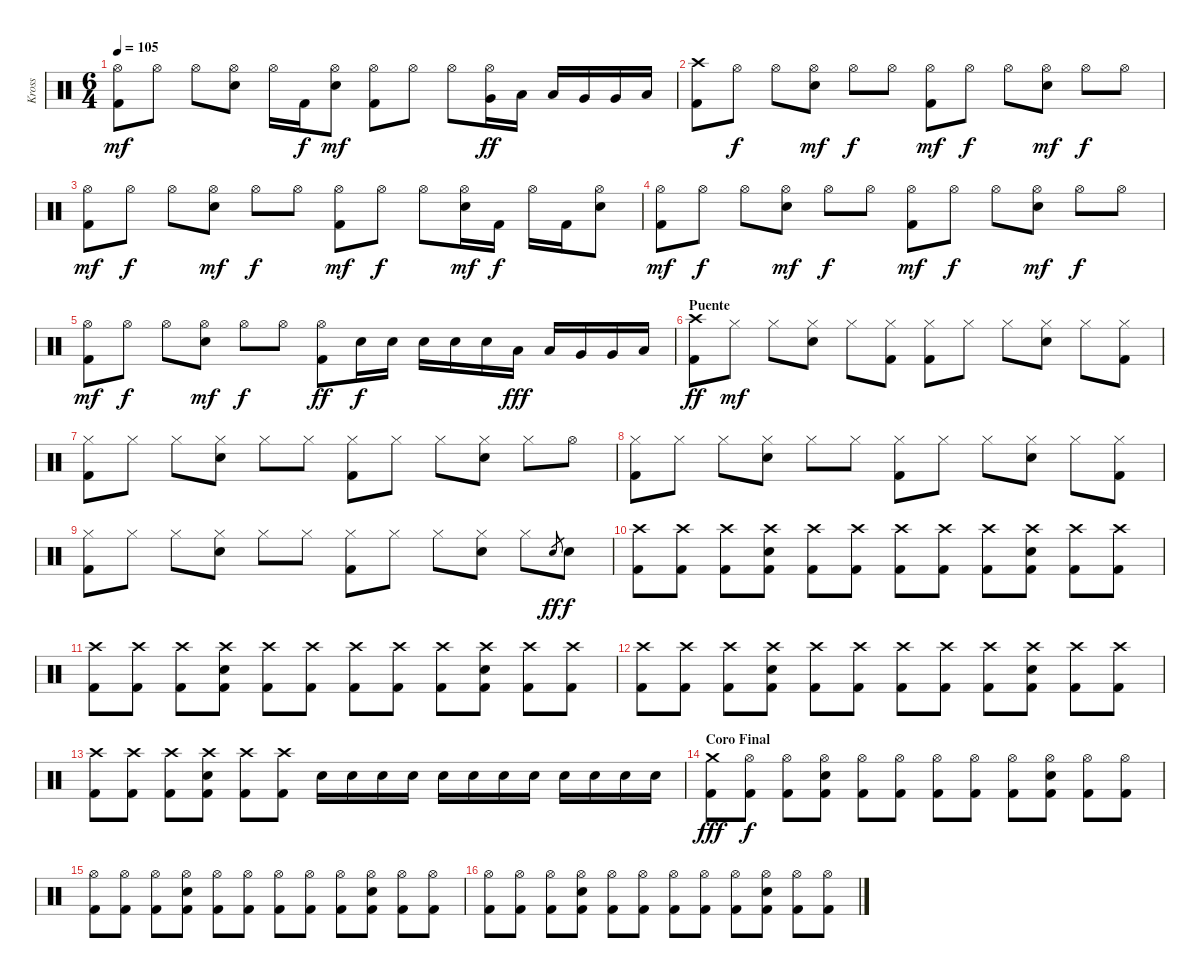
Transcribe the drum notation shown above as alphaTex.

\track ("Kross" "Kross") {instrument percussion}
\staff {score}
\articulation defaults
\ts (6 4)
\tempo 105
\clef neutral
\ks c
("Hi-Hat (open)" "Kick (hit) 2").8{dy mf} "Hi-Hat (open)".8 "Hi-Hat (open)".8 ("Hi-Hat (open)" "Electric Snare (hit)").8 "Hi-Hat (open)".16 "Kick (hit) 2".16{dy f} ("Hi-Hat (open)" "Electric Snare (hit)").8{dy mf} ("Hi-Hat (open)" "Kick (hit) 2").8 "Hi-Hat (open)".8 "Hi-Hat (open)".8 ("Hi-Hat (open)" "Very Low Tom (hit)").16{dy ff} "Low Tom (hit)".16 "Low Tom (hit)".16 "Very Low Tom (hit)".16 "Very Low Tom (hit)".16 "Low Tom (hit)".16 |
("Crash high (hit)" "Kick (hit) 2").8 "Hi-Hat (open)".8{dy f} "Hi-Hat (open)".8 ("Hi-Hat (open)" "Electric Snare (hit)").8{dy mf} "Hi-Hat (open)".8{dy f} "Hi-Hat (open)".8 ("Hi-Hat (open)" "Kick (hit) 2").8{dy mf} "Hi-Hat (open)".8{dy f} "Hi-Hat (open)".8 ("Hi-Hat (open)" "Electric Snare (hit)").8{dy mf} "Hi-Hat (open)".8{dy f} "Hi-Hat (open)".8 |
("Hi-Hat (open)" "Kick (hit) 2").8{dy mf} "Hi-Hat (open)".8{dy f} "Hi-Hat (open)".8 ("Hi-Hat (open)" "Electric Snare (hit)").8{dy mf} "Hi-Hat (open)".8{dy f} "Hi-Hat (open)".8 ("Hi-Hat (open)" "Kick (hit) 2").8{dy mf} "Hi-Hat (open)".8{dy f} "Hi-Hat (open)".8 ("Hi-Hat (open)" "Electric Snare (hit)").16{dy mf} "Kick (hit) 2".16{dy f} "Hi-Hat (open)".16 "Kick (hit) 2".16 ("Hi-Hat (open)" "Electric Snare (hit)").8 |
("Hi-Hat (open)" "Kick (hit) 2").8{dy mf} "Hi-Hat (open)".8{dy f} "Hi-Hat (open)".8 ("Hi-Hat (open)" "Electric Snare (hit)").8{dy mf} "Hi-Hat (open)".8{dy f} "Hi-Hat (open)".8 ("Hi-Hat (open)" "Kick (hit) 2").8{dy mf} "Hi-Hat (open)".8{dy f} "Hi-Hat (open)".8 ("Hi-Hat (open)" "Electric Snare (hit)").8{dy mf} "Hi-Hat (open)".8{dy f} "Hi-Hat (open)".8 |
("Hi-Hat (open)" "Kick (hit) 2").8{dy mf} "Hi-Hat (open)".8{dy f} "Hi-Hat (open)".8 ("Hi-Hat (open)" "Electric Snare (hit)").8{dy mf} "Hi-Hat (open)".8{dy f} "Hi-Hat (open)".8 ("Hi-Hat (open)" "Kick (hit) 2").8{dy ff} "Electric Snare (hit)".16{dy f} "Electric Snare (hit)".16 "Electric Snare (hit)".16 "Electric Snare (hit)".16 "Electric Snare (hit)".16 "Low Tom (hit)".16{dy fff} "Low Tom (hit)".16 "Very Low Tom (hit)".16 "Very Low Tom (hit)".16 "Low Tom (hit)".16 |
\section ("" "Puente")
("Crash high (hit)" "Kick (hit) 2").8{dy ff} "Hi-Hat (closed)".8{dy mf} "Hi-Hat (closed)".8 ("Hi-Hat (closed)" "Electric Snare (hit)").8 "Hi-Hat (closed)".8 ("Hi-Hat (closed)" "Kick (hit) 2").8 ("Hi-Hat (closed)" "Kick (hit) 2").8 "Hi-Hat (closed)".8 "Hi-Hat (closed)".8 ("Hi-Hat (closed)" "Electric Snare (hit)").8 "Hi-Hat (closed)".8 ("Hi-Hat (closed)" "Kick (hit) 2").8 |
("Hi-Hat (closed)" "Kick (hit) 2").8 "Hi-Hat (closed)".8 "Hi-Hat (closed)".8 ("Hi-Hat (closed)" "Electric Snare (hit)").8 "Hi-Hat (closed)".8 "Hi-Hat (closed)".8 ("Hi-Hat (closed)" "Kick (hit) 2").8 "Hi-Hat (closed)".8 "Hi-Hat (closed)".8 ("Hi-Hat (closed)" "Electric Snare (hit)").8 "Hi-Hat (closed)".8 "Hi-Hat (open)".8 |
("Hi-Hat (closed)" "Kick (hit) 2").8 "Hi-Hat (closed)".8 "Hi-Hat (closed)".8 ("Hi-Hat (closed)" "Electric Snare (hit)").8 "Hi-Hat (closed)".8 "Hi-Hat (closed)".8 ("Hi-Hat (closed)" "Kick (hit) 2").8 "Hi-Hat (closed)".8 "Hi-Hat (closed)".8 ("Hi-Hat (closed)" "Electric Snare (hit)").8 "Hi-Hat (closed)".8 ("Hi-Hat (closed)" "Kick (hit) 2").8 |
("Hi-Hat (closed)" "Kick (hit) 2").8 "Hi-Hat (closed)".8 "Hi-Hat (closed)".8 ("Hi-Hat (closed)" "Electric Snare (hit)").8 "Hi-Hat (closed)".8 "Hi-Hat (closed)".8 ("Hi-Hat (closed)" "Kick (hit) 2").8 "Hi-Hat (closed)".8 "Hi-Hat (closed)".8 ("Hi-Hat (closed)" "Electric Snare (hit)").8 "Hi-Hat (closed)".8 "Electric Snare (hit)".8{gr dy ff} "Electric Snare (hit)".8{dy f} |
("Crash high (hit)" "Kick (hit) 2").8 ("Crash high (hit)" "Kick (hit) 2").8 ("Crash high (hit)" "Kick (hit) 2").8 ("Crash high (hit)" "Electric Snare (hit)" "Kick (hit) 2").8 ("Crash high (hit)" "Kick (hit) 2").8 ("Crash high (hit)" "Kick (hit) 2").8 ("Crash high (hit)" "Kick (hit) 2").8 ("Crash high (hit)" "Kick (hit) 2").8 ("Crash high (hit)" "Kick (hit) 2").8 ("Crash high (hit)" "Electric Snare (hit)" "Kick (hit) 2").8 ("Crash high (hit)" "Kick (hit) 2").8 ("Crash high (hit)" "Kick (hit) 2").8 |
("Crash high (hit)" "Kick (hit) 2").8 ("Crash high (hit)" "Kick (hit) 2").8 ("Crash high (hit)" "Kick (hit) 2").8 ("Crash high (hit)" "Electric Snare (hit)" "Kick (hit) 2").8 ("Crash high (hit)" "Kick (hit) 2").8 ("Crash high (hit)" "Kick (hit) 2").8 ("Crash high (hit)" "Kick (hit) 2").8 ("Crash high (hit)" "Kick (hit) 2").8 ("Crash high (hit)" "Kick (hit) 2").8 ("Crash high (hit)" "Electric Snare (hit)" "Kick (hit) 2").8 ("Crash high (hit)" "Kick (hit) 2").8 ("Crash high (hit)" "Kick (hit) 2").8 |
("Crash high (hit)" "Kick (hit) 2").8 ("Crash high (hit)" "Kick (hit) 2").8 ("Crash high (hit)" "Kick (hit) 2").8 ("Crash high (hit)" "Electric Snare (hit)" "Kick (hit) 2").8 ("Crash high (hit)" "Kick (hit) 2").8 ("Crash high (hit)" "Kick (hit) 2").8 ("Crash high (hit)" "Kick (hit) 2").8 ("Crash high (hit)" "Kick (hit) 2").8 ("Crash high (hit)" "Kick (hit) 2").8 ("Crash high (hit)" "Electric Snare (hit)" "Kick (hit) 2").8 ("Crash high (hit)" "Kick (hit) 2").8 ("Crash high (hit)" "Kick (hit) 2").8 |
("Crash high (hit)" "Kick (hit) 2").8 ("Crash high (hit)" "Kick (hit) 2").8 ("Crash high (hit)" "Kick (hit) 2").8 ("Crash high (hit)" "Electric Snare (hit)" "Kick (hit) 2").8 ("Crash high (hit)" "Kick (hit) 2").8 ("Crash high (hit)" "Kick (hit) 2").8 "Electric Snare (hit)".16 "Electric Snare (hit)".16 "Electric Snare (hit)".16 "Electric Snare (hit)".16 "Electric Snare (hit)".16 "Electric Snare (hit)".16 "Electric Snare (hit)".16 "Electric Snare (hit)".16 "Electric Snare (hit)".16 "Electric Snare (hit)".16 "Electric Snare (hit)".16 "Electric Snare (hit)".16 |
\section ("" "Coro Final")
("Crash medium (hit)" "Kick (hit) 2").8{dy fff} ("Hi-Hat (open)" "Kick (hit) 2").8{dy f} ("Hi-Hat (open)" "Kick (hit) 2").8 ("Hi-Hat (open)" "Electric Snare (hit)" "Kick (hit) 2").8 ("Hi-Hat (open)" "Kick (hit) 2").8 ("Hi-Hat (open)" "Kick (hit) 2").8 ("Hi-Hat (open)" "Kick (hit) 2").8 ("Hi-Hat (open)" "Kick (hit) 2").8 ("Hi-Hat (open)" "Kick (hit) 2").8 ("Hi-Hat (open)" "Electric Snare (hit)" "Kick (hit) 2").8 ("Hi-Hat (open)" "Kick (hit) 2").8 ("Hi-Hat (open)" "Kick (hit) 2").8 |
("Hi-Hat (open)" "Kick (hit) 2").8 ("Hi-Hat (open)" "Kick (hit) 2").8 ("Hi-Hat (open)" "Kick (hit) 2").8 ("Hi-Hat (open)" "Electric Snare (hit)" "Kick (hit) 2").8 ("Hi-Hat (open)" "Kick (hit) 2").8 ("Hi-Hat (open)" "Kick (hit) 2").8 ("Hi-Hat (open)" "Kick (hit) 2").8 ("Hi-Hat (open)" "Kick (hit) 2").8 ("Hi-Hat (open)" "Kick (hit) 2").8 ("Hi-Hat (open)" "Electric Snare (hit)" "Kick (hit) 2").8 ("Hi-Hat (open)" "Kick (hit) 2").8 ("Hi-Hat (open)" "Kick (hit) 2").8 |
("Hi-Hat (open)" "Kick (hit) 2").8 ("Hi-Hat (open)" "Kick (hit) 2").8 ("Hi-Hat (open)" "Kick (hit) 2").8 ("Hi-Hat (open)" "Electric Snare (hit)" "Kick (hit) 2").8 ("Hi-Hat (open)" "Kick (hit) 2").8 ("Hi-Hat (open)" "Kick (hit) 2").8 ("Hi-Hat (open)" "Kick (hit) 2").8 ("Hi-Hat (open)" "Kick (hit) 2").8 ("Hi-Hat (open)" "Kick (hit) 2").8 ("Hi-Hat (open)" "Electric Snare (hit)" "Kick (hit) 2").8 ("Hi-Hat (open)" "Kick (hit) 2").8 ("Hi-Hat (open)" "Kick (hit) 2").8
